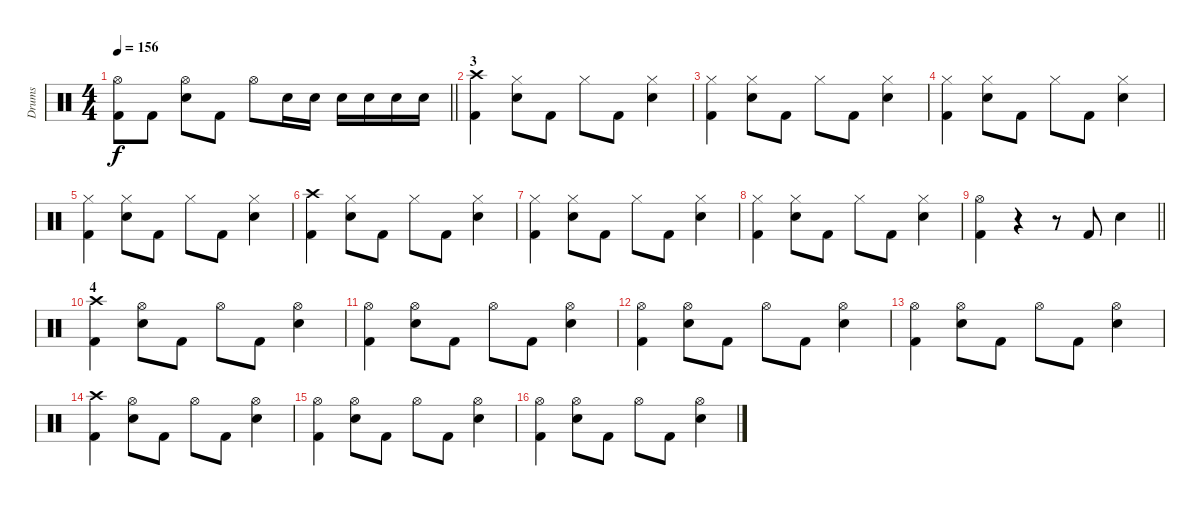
\track ("Drums" "Drums") {instrument percussion}
\staff {score}
\articulation defaults
\ts (4 4)
\tempo 156
\clef neutral
\barLineRight lightlight
\ks c
("Hi-Hat (open)" "Kick (hit) 2").8{dy f} "Kick (hit) 2".8 ("Hi-Hat (open)" "Snare (hit) 2").8 "Kick (hit) 2".8 "Hi-Hat (open)".8 "Snare (hit) 2".16 "Snare (hit) 2".16 "Snare (hit) 2".16 "Snare (hit) 2".16 "Snare (hit) 2".16 "Snare (hit) 2".16 |
\section ("" "3")
("Crash high (hit)" "Kick (hit) 2").4 ("Hi-Hat (closed)" "Snare (hit) 2").8 "Kick (hit) 2".8 "Hi-Hat (closed)".8 "Kick (hit) 2".8 ("Hi-Hat (closed)" "Snare (hit) 2").4 |
("Hi-Hat (closed)" "Kick (hit) 2").4 ("Hi-Hat (closed)" "Snare (hit) 2").8 "Kick (hit) 2".8 "Hi-Hat (closed)".8 "Kick (hit) 2".8 ("Hi-Hat (closed)" "Snare (hit) 2").4 |
("Hi-Hat (closed)" "Kick (hit) 2").4 ("Hi-Hat (closed)" "Snare (hit) 2").8 "Kick (hit) 2".8 "Hi-Hat (closed)".8 "Kick (hit) 2".8 ("Hi-Hat (closed)" "Snare (hit) 2").4 |
("Hi-Hat (closed)" "Kick (hit) 2").4 ("Hi-Hat (closed)" "Snare (hit) 2").8 "Kick (hit) 2".8 "Hi-Hat (closed)".8 "Kick (hit) 2".8 ("Hi-Hat (closed)" "Snare (hit) 2").4 |
("Crash high (hit)" "Kick (hit) 2").4 ("Hi-Hat (closed)" "Snare (hit) 2").8 "Kick (hit) 2".8 "Hi-Hat (closed)".8 "Kick (hit) 2".8 ("Hi-Hat (closed)" "Snare (hit) 2").4 |
("Hi-Hat (closed)" "Kick (hit) 2").4 ("Hi-Hat (closed)" "Snare (hit) 2").8 "Kick (hit) 2".8 "Hi-Hat (closed)".8 "Kick (hit) 2".8 ("Hi-Hat (closed)" "Snare (hit) 2").4 |
("Hi-Hat (closed)" "Kick (hit) 2").4 ("Hi-Hat (closed)" "Snare (hit) 2").8 "Kick (hit) 2".8 "Hi-Hat (closed)".8 "Kick (hit) 2".8 ("Hi-Hat (closed)" "Snare (hit) 2").4 |
\barLineRight lightlight
("Hi-Hat (open)" "Kick (hit) 2").4 r.4 r.8 "Kick (hit) 2".8 "Snare (hit) 2".4 |
\section ("" "4")
("Crash high (hit)" "Kick (hit) 2").4 ("Hi-Hat (open)" "Snare (hit) 2").8 "Kick (hit) 2".8 "Hi-Hat (open)".8 "Kick (hit) 2".8 ("Hi-Hat (open)" "Snare (hit) 2").4 |
("Hi-Hat (open)" "Kick (hit) 2").4 ("Hi-Hat (open)" "Snare (hit) 2").8 "Kick (hit) 2".8 "Hi-Hat (open)".8 "Kick (hit) 2".8 ("Hi-Hat (open)" "Snare (hit) 2").4 |
("Hi-Hat (open)" "Kick (hit) 2").4 ("Hi-Hat (open)" "Snare (hit) 2").8 "Kick (hit) 2".8 "Hi-Hat (open)".8 "Kick (hit) 2".8 ("Hi-Hat (open)" "Snare (hit) 2").4 |
("Hi-Hat (open)" "Kick (hit) 2").4 ("Hi-Hat (open)" "Snare (hit) 2").8 "Kick (hit) 2".8 "Hi-Hat (open)".8 "Kick (hit) 2".8 ("Hi-Hat (open)" "Snare (hit) 2").4 |
("Crash high (hit)" "Kick (hit) 2").4 ("Hi-Hat (open)" "Snare (hit) 2").8 "Kick (hit) 2".8 "Hi-Hat (open)".8 "Kick (hit) 2".8 ("Hi-Hat (open)" "Snare (hit) 2").4 |
("Hi-Hat (open)" "Kick (hit) 2").4 ("Hi-Hat (open)" "Snare (hit) 2").8 "Kick (hit) 2".8 "Hi-Hat (open)".8 "Kick (hit) 2".8 ("Hi-Hat (open)" "Snare (hit) 2").4 |
("Hi-Hat (open)" "Kick (hit) 2").4 ("Hi-Hat (open)" "Snare (hit) 2").8 "Kick (hit) 2".8 "Hi-Hat (open)".8 "Kick (hit) 2".8 ("Hi-Hat (open)" "Snare (hit) 2").4
